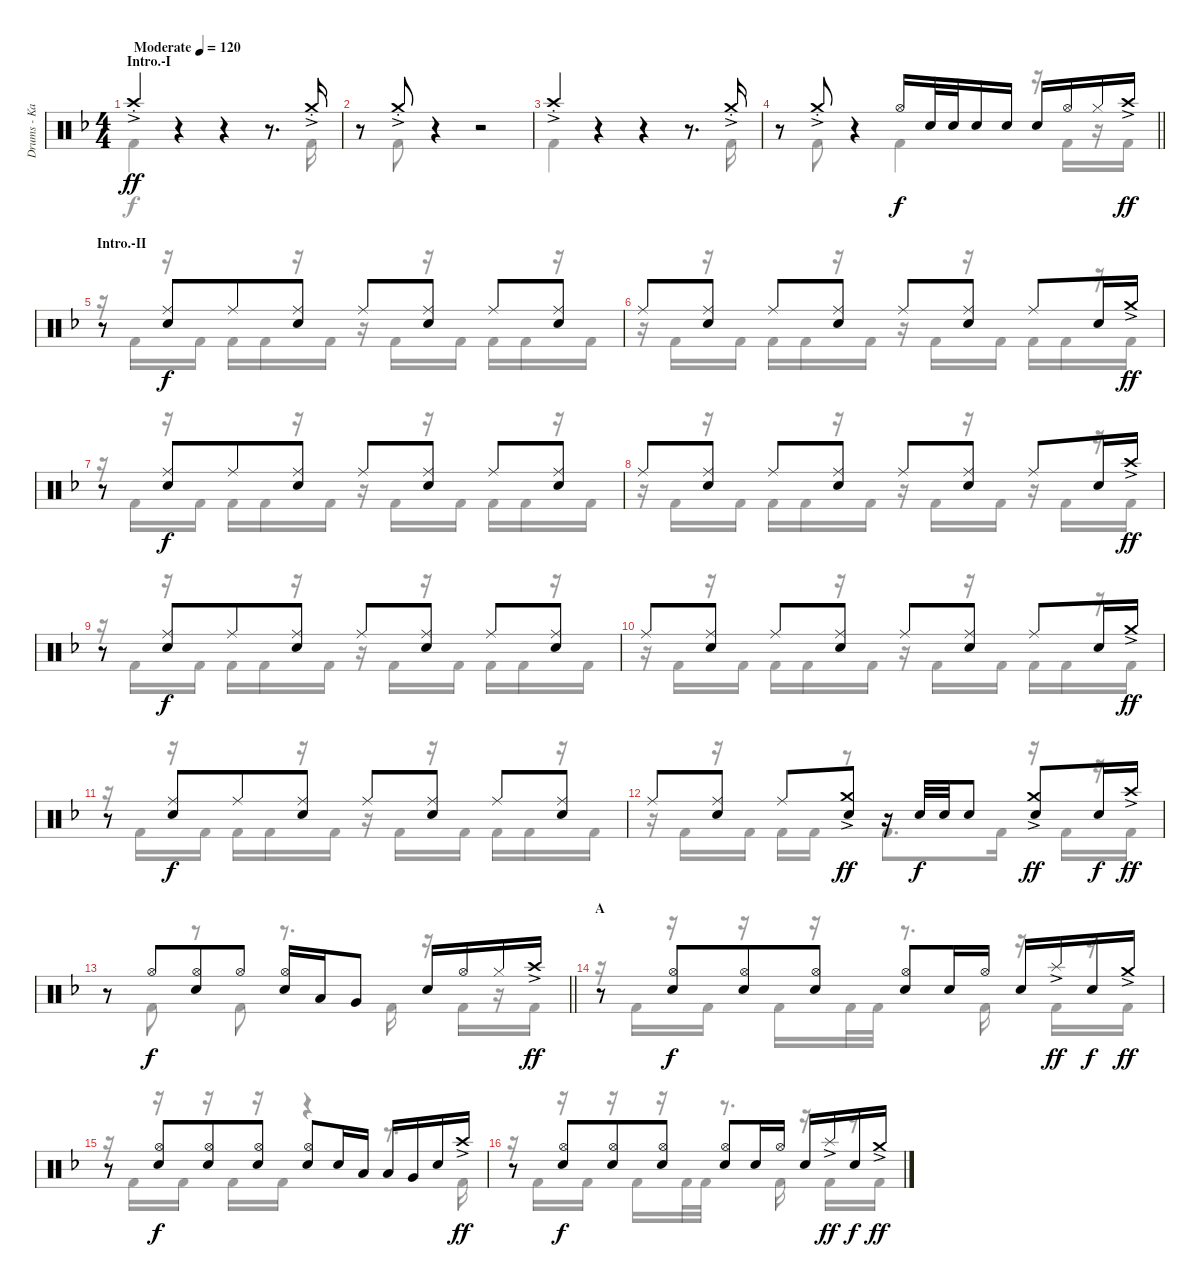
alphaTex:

\track ("Drums - Kai" "Drums - Ka") {instrument percussion}
\staff {score}
\articulation defaults
\voice
\ts (4 4)
\section ("" "Intro.-I")
\tempo (120 "Moderate")
\clef neutral
\ks f "Crash high (hit)"{ac st}.4{dy ff}
r.4 r.4 r.8{d} "Crash medium (hit)"{ac st}.16 |
r.8 "Crash medium (hit)"{ac st}.8 r.4 r.2 |
"Crash high (hit)"{ac st}.4 r.4 r.4 r.8{d} "Crash medium (hit)"{ac st}.16 |
\barLineRight lightlight
r.8 "Crash medium (hit)"{ac st}.8 r.4 "Hi-Hat (open)".16{dy f} "Electric Snare (hit)".32 "Electric Snare (hit)".32 "Electric Snare (hit)".16 "Electric Snare (hit)".16 "Electric Snare (hit)".16 "Hi-Hat (open)".16 "Hi-Hat (closed)".16 "Crash high (hit)"{ac}.16{dy ff} |
\section ("" "Intro.-II")
r.8 ("Ride (middle)" "Electric Snare (hit)").8{dy f beam merge} "Ride (middle)".8 ("Ride (middle)" "Electric Snare (hit)").8 "Ride (middle)".8 ("Ride (middle)" "Electric Snare (hit)").8 "Ride (middle)".8 ("Ride (middle)" "Electric Snare (hit)").8 |
"Ride (middle)".8 ("Ride (middle)" "Electric Snare (hit)").8 "Ride (middle)".8 ("Ride (middle)" "Electric Snare (hit)").8 "Ride (middle)".8 ("Ride (middle)" "Electric Snare (hit)").8 "Ride (middle)".8 "Electric Snare (hit)".16 "Crash medium (hit)"{ac}.16{dy ff} |
r.8 ("Ride (middle)" "Electric Snare (hit)").8{dy f beam merge} "Ride (middle)".8 ("Ride (middle)" "Electric Snare (hit)").8 "Ride (middle)".8 ("Ride (middle)" "Electric Snare (hit)").8 "Ride (middle)".8 ("Ride (middle)" "Electric Snare (hit)").8 |
"Ride (middle)".8 ("Ride (middle)" "Electric Snare (hit)").8 "Ride (middle)".8 ("Ride (middle)" "Electric Snare (hit)").8 "Ride (middle)".8 ("Ride (middle)" "Electric Snare (hit)").8 "Ride (middle)".8 "Electric Snare (hit)".16 "Crash high (hit)"{ac}.16{dy ff} |
r.8 ("Ride (middle)" "Electric Snare (hit)").8{dy f beam merge} "Ride (middle)".8 ("Ride (middle)" "Electric Snare (hit)").8 "Ride (middle)".8 ("Ride (middle)" "Electric Snare (hit)").8 "Ride (middle)".8 ("Ride (middle)" "Electric Snare (hit)").8 |
"Ride (middle)".8 ("Ride (middle)" "Electric Snare (hit)").8 "Ride (middle)".8 ("Ride (middle)" "Electric Snare (hit)").8 "Ride (middle)".8 ("Ride (middle)" "Electric Snare (hit)").8 "Ride (middle)".8 "Electric Snare (hit)".16 "Crash medium (hit)"{ac}.16{dy ff} |
r.8 ("Ride (middle)" "Electric Snare (hit)").8{dy f beam merge} "Ride (middle)".8 ("Ride (middle)" "Electric Snare (hit)").8 "Ride (middle)".8 ("Ride (middle)" "Electric Snare (hit)").8 "Ride (middle)".8 ("Ride (middle)" "Electric Snare (hit)").8 |
"Ride (middle)".8 ("Ride (middle)" "Electric Snare (hit)").8 "Ride (middle)".8 ("Crash medium (hit)"{ac} "Electric Snare (hit)").8{dy ff} r.16 "Electric Snare (hit)".32{dy f} "Electric Snare (hit)".32 "Electric Snare (hit)".8 ("Crash medium (hit)"{ac} "Electric Snare (hit)").8{dy ff} "Electric Snare (hit)".16{dy f} "Crash high (hit)"{ac}.16{dy ff} |
\barLineRight lightlight
r.8 "Hi-Hat (open)".8{dy f beam merge} ("Hi-Hat (open)" "Electric Snare (hit)").8 "Hi-Hat (open)".8 ("Hi-Hat (open)" "Electric Snare (hit)").16 "Low Tom (hit)".16 "Very Low Tom (hit)".8 "Electric Snare (hit)".16 "Hi-Hat (open)".16 "Hi-Hat (closed)".16 "Crash high (hit)"{ac}.16{dy ff} |
\section ("" "A")
r.8{beam merge} ("Hi-Hat (open)" "Electric Snare (hit)").8{dy f beam merge} ("Hi-Hat (open)" "Electric Snare (hit)").8{beam merge} ("Hi-Hat (open)" "Electric Snare (hit)").8{beam split} ("Hi-Hat (open)" "Electric Snare (hit)").8 "Electric Snare (hit)".16 "Hi-Hat (open)".16 "Electric Snare (hit)".16 "Splash (hit)"{ac}.16{dy ff} "Electric Snare (hit)".16{dy f} "Crash medium (hit)"{ac}.16{dy ff} |
r.8{beam merge} ("Hi-Hat (open)" "Electric Snare (hit)").8{dy f beam merge} ("Hi-Hat (open)" "Electric Snare (hit)").8{beam merge} ("Hi-Hat (open)" "Electric Snare (hit)").8{beam split} ("Hi-Hat (open)" "Electric Snare (hit)").8 "Electric Snare (hit)".16 "Low Tom (hit)".16 "Low Tom (hit)".16 "Very Low Tom (hit)".16 "Electric Snare (hit)".16 "Crash high (hit)"{ac}.16{dy ff} |
r.8{beam merge} ("Hi-Hat (open)" "Electric Snare (hit)").8{dy f beam merge} ("Hi-Hat (open)" "Electric Snare (hit)").8{beam merge} ("Hi-Hat (open)" "Electric Snare (hit)").8{beam split} ("Hi-Hat (open)" "Electric Snare (hit)").8 "Electric Snare (hit)".16 "Hi-Hat (open)".16 "Electric Snare (hit)".16 "Splash (hit)"{ac}.16{dy ff} "Electric Snare (hit)".16{dy f} "Crash medium (hit)"{ac}.16{dy ff}
\voice
\clef neutral
\ottava regular
\simile none
\ks f "Kick (hit) 2".4{dy f}
r.4 r.4 r.8{d} "Kick (hit) 2".16 |
r.8 "Kick (hit) 2".8 r.4 r.2 |
"Kick (hit) 2".4 r.4 r.4 r.8{d} "Kick (hit) 2".16 |
\barLineRight lightlight
r.8 "Kick (hit) 2".8 r.4 "Kick (hit) 2".4 r.16 "Kick (hit) 2".16 r.16 "Kick (hit) 2".16 |
r.16 "Kick (hit) 2".16 r.16 "Kick (hit) 2".16 "Kick (hit) 2".16 "Kick (hit) 2".16 r.16 "Kick (hit) 2".16 r.16 "Kick (hit) 2".16 r.16 "Kick (hit) 2".16 "Kick (hit) 2".16 "Kick (hit) 2".16 r.16 "Kick (hit) 2".16 |
r.16 "Kick (hit) 2".16 r.16 "Kick (hit) 2".16 "Kick (hit) 2".16 "Kick (hit) 2".16 r.16 "Kick (hit) 2".16 r.16 "Kick (hit) 2".16 r.16 "Kick (hit) 2".16 "Kick (hit) 2".16 "Kick (hit) 2".16 r.16 "Kick (hit) 2".16 |
r.16 "Kick (hit) 2".16 r.16 "Kick (hit) 2".16 "Kick (hit) 2".16 "Kick (hit) 2".16 r.16 "Kick (hit) 2".16 r.16 "Kick (hit) 2".16 r.16 "Kick (hit) 2".16 "Kick (hit) 2".16 "Kick (hit) 2".16 r.16 "Kick (hit) 2".16 |
r.16 "Kick (hit) 2".16 r.16 "Kick (hit) 2".16 "Kick (hit) 2".16 "Kick (hit) 2".16 r.16 "Kick (hit) 2".16 r.16 "Kick (hit) 2".16 r.16 "Kick (hit) 2".16 r.16 "Kick (hit) 2".16 r.16 "Kick (hit) 2".16 |
r.16 "Kick (hit) 2".16 r.16 "Kick (hit) 2".16 "Kick (hit) 2".16 "Kick (hit) 2".16 r.16 "Kick (hit) 2".16 r.16 "Kick (hit) 2".16 r.16 "Kick (hit) 2".16 "Kick (hit) 2".16 "Kick (hit) 2".16 r.16 "Kick (hit) 2".16 |
r.16 "Kick (hit) 2".16 r.16 "Kick (hit) 2".16 "Kick (hit) 2".16 "Kick (hit) 2".16 r.16 "Kick (hit) 2".16 r.16 "Kick (hit) 2".16 r.16 "Kick (hit) 2".16 "Kick (hit) 2".16 "Kick (hit) 2".16 r.16 "Kick (hit) 2".16 |
r.16 "Kick (hit) 2".16 r.16 "Kick (hit) 2".16 "Kick (hit) 2".16 "Kick (hit) 2".16 r.16 "Kick (hit) 2".16 r.16 "Kick (hit) 2".16 r.16 "Kick (hit) 2".16 "Kick (hit) 2".16 "Kick (hit) 2".16 r.16 "Kick (hit) 2".16 |
r.16 "Kick (hit) 2".16 r.16 "Kick (hit) 2".16 "Kick (hit) 2".16 "Kick (hit) 2".16 r.8 "Kick (hit) 2".8{d} "Kick (hit) 2".16 r.16 "Kick (hit) 2".16 r.16 "Kick (hit) 2".16 |
\barLineRight lightlight
r.8 "Kick (hit) 2".8 r.8 "Kick (hit) 2".8 r.8{d} "Kick (hit) 2".16 r.16 "Kick (hit) 2".16 r.16 "Kick (hit) 2".16 |
r.16 "Kick (hit) 2".16 r.16 "Kick (hit) 2".16 r.16 "Kick (hit) 2".16 r.16 "Kick (hit) 2".32 "Kick (hit) 2".32 r.8{d} "Kick (hit) 2".16 r.16 "Kick (hit) 2".16 r.16 "Kick (hit) 2".16 |
r.16 "Kick (hit) 2".16 r.16 "Kick (hit) 2".16 r.16 "Kick (hit) 2".16 r.16 "Kick (hit) 2".16 r.4 r.8{d} "Kick (hit) 2".16 |
r.16 "Kick (hit) 2".16 r.16 "Kick (hit) 2".16 r.16 "Kick (hit) 2".16 r.16 "Kick (hit) 2".32 "Kick (hit) 2".32 r.8{d} "Kick (hit) 2".16 r.16 "Kick (hit) 2".16 r.16 "Kick (hit) 2".16
